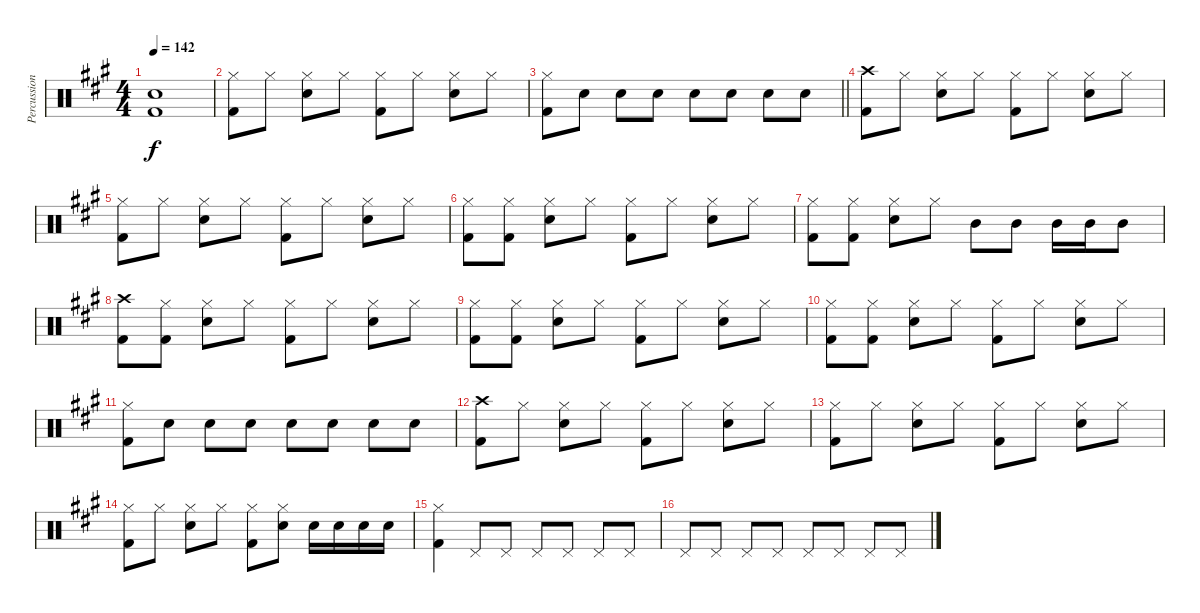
\track ("Percussion" "Percussion") {instrument percussion}
\staff {score}
\articulation defaults
\ts (4 4)
\tempo 142
\clef neutral
\ks a
("Snare (hit) 2" "Kick (hit) 2").1{dy f} |
("Hi-Hat (closed)" "Kick (hit) 2").8 "Hi-Hat (closed)".8 ("Hi-Hat (closed)" "Snare (hit) 2").8 "Hi-Hat (closed)".8 ("Hi-Hat (closed)" "Kick (hit) 2").8 "Hi-Hat (closed)".8 ("Hi-Hat (closed)" "Snare (hit) 2").8 "Hi-Hat (closed)".8 |
\barLineRight lightlight
("Hi-Hat (closed)" "Kick (hit) 2").8 "Snare (hit) 2".8 "Snare (hit) 2".8 "Snare (hit) 2".8 "Snare (hit) 2".8 "Snare (hit) 2".8 "Snare (hit) 2".8 "Snare (hit) 2".8 |
("Crash high (hit)" "Kick (hit) 2").8 "Hi-Hat (closed)".8 ("Hi-Hat (closed)" "Snare (hit) 2").8 "Hi-Hat (closed)".8 ("Hi-Hat (closed)" "Kick (hit) 2").8 "Hi-Hat (closed)".8 ("Hi-Hat (closed)" "Snare (hit) 2").8 "Hi-Hat (closed)".8 |
("Hi-Hat (closed)" "Kick (hit) 2").8 "Hi-Hat (closed)".8 ("Hi-Hat (closed)" "Snare (hit) 2").8 "Hi-Hat (closed)".8 ("Hi-Hat (closed)" "Kick (hit) 2").8 "Hi-Hat (closed)".8 ("Hi-Hat (closed)" "Snare (hit) 2").8 "Hi-Hat (closed)".8 |
("Hi-Hat (closed)" "Kick (hit) 2").8 ("Hi-Hat (closed)" "Kick (hit) 2").8 ("Hi-Hat (closed)" "Snare (hit) 2").8 "Hi-Hat (closed)".8 ("Hi-Hat (closed)" "Kick (hit) 2").8 "Hi-Hat (closed)".8 ("Hi-Hat (closed)" "Snare (hit) 2").8 "Hi-Hat (closed)".8 |
("Hi-Hat (closed)" "Kick (hit) 2").8 ("Hi-Hat (closed)" "Kick (hit) 2").8 ("Hi-Hat (closed)" "Snare (hit) 2").8 "Hi-Hat (closed)".8 "Mid Tom (hit)".8 "Mid Tom (hit)".8 "Mid Tom (hit)".16 "Mid Tom (hit)".16 "Mid Tom (hit)".8 |
("Crash high (hit)" "Kick (hit) 2").8 ("Hi-Hat (closed)" "Kick (hit) 2").8 ("Hi-Hat (closed)" "Snare (hit) 2").8 "Hi-Hat (closed)".8 ("Hi-Hat (closed)" "Kick (hit) 2").8 "Hi-Hat (closed)".8 ("Hi-Hat (closed)" "Snare (hit) 2").8 "Hi-Hat (closed)".8 |
("Hi-Hat (closed)" "Kick (hit) 2").8 ("Hi-Hat (closed)" "Kick (hit) 2").8 ("Hi-Hat (closed)" "Snare (hit) 2").8 "Hi-Hat (closed)".8 ("Hi-Hat (closed)" "Kick (hit) 2").8 "Hi-Hat (closed)".8 ("Hi-Hat (closed)" "Snare (hit) 2").8 "Hi-Hat (closed)".8 |
("Hi-Hat (closed)" "Kick (hit) 2").8 ("Hi-Hat (closed)" "Kick (hit) 2").8 ("Hi-Hat (closed)" "Snare (hit) 2").8 "Hi-Hat (closed)".8 ("Hi-Hat (closed)" "Kick (hit) 2").8 "Hi-Hat (closed)".8 ("Hi-Hat (closed)" "Snare (hit) 2").8 "Hi-Hat (closed)".8 |
("Hi-Hat (closed)" "Kick (hit) 2").8 "Snare (hit) 2".8 "Snare (hit) 2".8 "Snare (hit) 2".8 "Snare (hit) 2".8 "Snare (hit) 2".8 "Snare (hit) 2".8 "Snare (hit) 2".8 |
("Crash high (hit)" "Kick (hit) 2").8 "Hi-Hat (closed)".8 ("Hi-Hat (closed)" "Snare (hit) 2").8 "Hi-Hat (closed)".8 ("Hi-Hat (closed)" "Kick (hit) 2").8 "Hi-Hat (closed)".8 ("Hi-Hat (closed)" "Snare (hit) 2").8 "Hi-Hat (closed)".8 |
("Hi-Hat (closed)" "Kick (hit) 2").8 "Hi-Hat (closed)".8 ("Hi-Hat (closed)" "Snare (hit) 2").8 "Hi-Hat (closed)".8 ("Hi-Hat (closed)" "Kick (hit) 2").8 "Hi-Hat (closed)".8 ("Hi-Hat (closed)" "Snare (hit) 2").8 "Hi-Hat (closed)".8 |
("Hi-Hat (closed)" "Kick (hit) 2").8 "Hi-Hat (closed)".8 ("Hi-Hat (closed)" "Snare (hit) 2").8 "Hi-Hat (closed)".8 ("Hi-Hat (closed)" "Kick (hit) 2").8 ("Hi-Hat (closed)" "Snare (hit) 2").8 "Snare (hit) 2".16 "Snare (hit) 2".16 "Snare (hit) 2".16 "Snare (hit) 2".16 |
("Hi-Hat (closed)" "Kick (hit) 2").4 "Pedal Hi-Hat (hit)".8 "Pedal Hi-Hat (hit)".8 "Pedal Hi-Hat (hit)".8 "Pedal Hi-Hat (hit)".8 "Pedal Hi-Hat (hit)".8 "Pedal Hi-Hat (hit)".8 |
"Pedal Hi-Hat (hit)".8 "Pedal Hi-Hat (hit)".8 "Pedal Hi-Hat (hit)".8 "Pedal Hi-Hat (hit)".8 "Pedal Hi-Hat (hit)".8 "Pedal Hi-Hat (hit)".8 "Pedal Hi-Hat (hit)".8 "Pedal Hi-Hat (hit)".8
